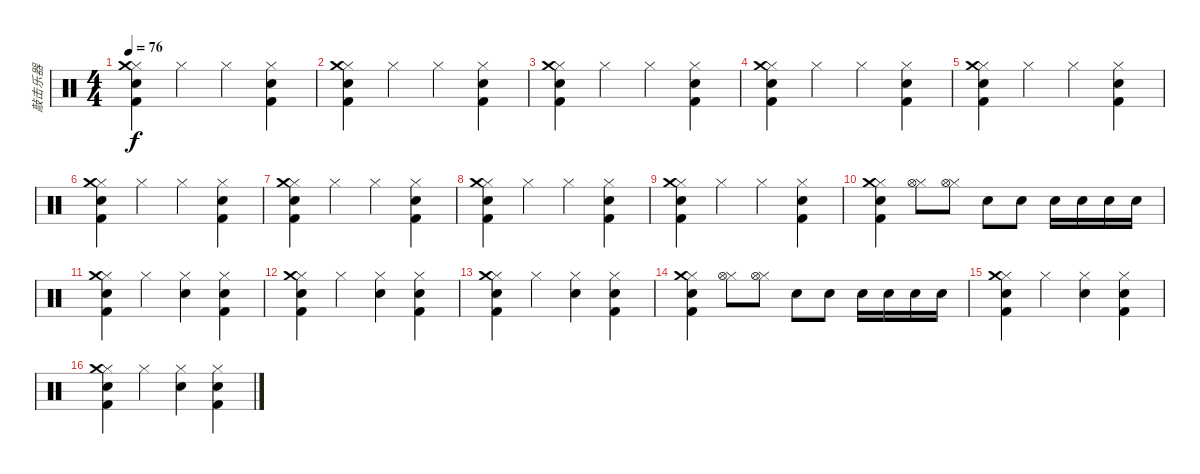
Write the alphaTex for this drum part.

\track ("敲击乐器" "敲击乐器") {instrument percussion}
\staff {score}
\articulation defaults
\ts (4 4)
\tempo 76
\clef neutral
\ks c
("Hi-Hat (closed)" "Snare (hit) 2" "Kick (hit) 2" "Crash medium (hit)").4{dy f} "Hi-Hat (closed)".4 "Hi-Hat (closed)".4 ("Hi-Hat (closed)" "Snare (hit) 2" "Kick (hit) 2").4 |
("Hi-Hat (closed)" "Snare (hit) 2" "Kick (hit) 2" "Crash medium (hit)").4 "Hi-Hat (closed)".4 "Hi-Hat (closed)".4 ("Hi-Hat (closed)" "Snare (hit) 2" "Kick (hit) 2").4 |
("Hi-Hat (closed)" "Snare (hit) 2" "Kick (hit) 2" "Crash medium (hit)").4 "Hi-Hat (closed)".4 "Hi-Hat (closed)".4 ("Hi-Hat (closed)" "Snare (hit) 2" "Kick (hit) 2").4 |
("Hi-Hat (closed)" "Snare (hit) 2" "Kick (hit) 2" "Crash medium (hit)").4 "Hi-Hat (closed)".4 "Hi-Hat (closed)".4 ("Hi-Hat (closed)" "Snare (hit) 2" "Kick (hit) 2").4 |
("Hi-Hat (closed)" "Snare (hit) 2" "Kick (hit) 2" "Crash medium (hit)").4 "Hi-Hat (closed)".4 "Hi-Hat (closed)".4 ("Hi-Hat (closed)" "Snare (hit) 2" "Kick (hit) 2").4 |
("Hi-Hat (closed)" "Snare (hit) 2" "Kick (hit) 2" "Crash medium (hit)").4 "Hi-Hat (closed)".4 "Hi-Hat (closed)".4 ("Hi-Hat (closed)" "Snare (hit) 2" "Kick (hit) 2").4 |
("Hi-Hat (closed)" "Snare (hit) 2" "Kick (hit) 2" "Crash medium (hit)").4 "Hi-Hat (closed)".4 "Hi-Hat (closed)".4 ("Hi-Hat (closed)" "Snare (hit) 2" "Kick (hit) 2").4 |
("Hi-Hat (closed)" "Snare (hit) 2" "Kick (hit) 2" "Crash medium (hit)").4 "Hi-Hat (closed)".4 "Hi-Hat (closed)".4 ("Hi-Hat (closed)" "Snare (hit) 2" "Kick (hit) 2").4 |
("Hi-Hat (closed)" "Snare (hit) 2" "Kick (hit) 2" "Crash medium (hit)").4 "Hi-Hat (closed)".4 "Hi-Hat (closed)".4 ("Hi-Hat (closed)" "Snare (hit) 2" "Kick (hit) 2").4 |
("Hi-Hat (closed)" "Snare (hit) 2" "Kick (hit) 2" "Crash medium (hit)").4 ("Hi-Hat (closed)" "Hi-Hat (open)").8 ("Hi-Hat (closed)" "Hi-Hat (open)").8 "Electric Snare (hit)".8 "Electric Snare (hit)".8 "Snare (hit) 2".16 "Snare (hit) 2".16 "Snare (hit) 2".16 "Snare (hit) 2".16 |
("Hi-Hat (closed)" "Snare (hit) 2" "Kick (hit) 2" "Crash medium (hit)").4 "Hi-Hat (closed)".4 ("Hi-Hat (closed)" "Hand Clap (hit)").4 ("Hi-Hat (closed)" "Snare (hit) 2" "Kick (hit) 2").4 |
("Hi-Hat (closed)" "Snare (hit) 2" "Kick (hit) 2" "Crash medium (hit)").4 "Hi-Hat (closed)".4 ("Hi-Hat (closed)" "Hand Clap (hit)").4 ("Hi-Hat (closed)" "Snare (hit) 2" "Kick (hit) 2").4 |
("Hi-Hat (closed)" "Snare (hit) 2" "Kick (hit) 2" "Crash medium (hit)").4 "Hi-Hat (closed)".4 ("Hi-Hat (closed)" "Hand Clap (hit)").4 ("Hi-Hat (closed)" "Snare (hit) 2" "Kick (hit) 2").4 |
("Hi-Hat (closed)" "Snare (hit) 2" "Kick (hit) 2" "Crash medium (hit)").4 ("Hi-Hat (closed)" "Hi-Hat (open)").8 ("Hi-Hat (closed)" "Hi-Hat (open)").8 "Electric Snare (hit)".8 "Electric Snare (hit)".8 "Snare (hit) 2".16 "Snare (hit) 2".16 "Snare (hit) 2".16 "Snare (hit) 2".16 |
("Hi-Hat (closed)" "Snare (hit) 2" "Kick (hit) 2" "Crash medium (hit)").4 "Hi-Hat (closed)".4 ("Hi-Hat (closed)" "Hand Clap (hit)").4 ("Hi-Hat (closed)" "Snare (hit) 2" "Kick (hit) 2").4 |
("Hi-Hat (closed)" "Snare (hit) 2" "Kick (hit) 2" "Crash medium (hit)").4 "Hi-Hat (closed)".4 ("Hi-Hat (closed)" "Hand Clap (hit)").4 ("Hi-Hat (closed)" "Snare (hit) 2" "Kick (hit) 2").4
